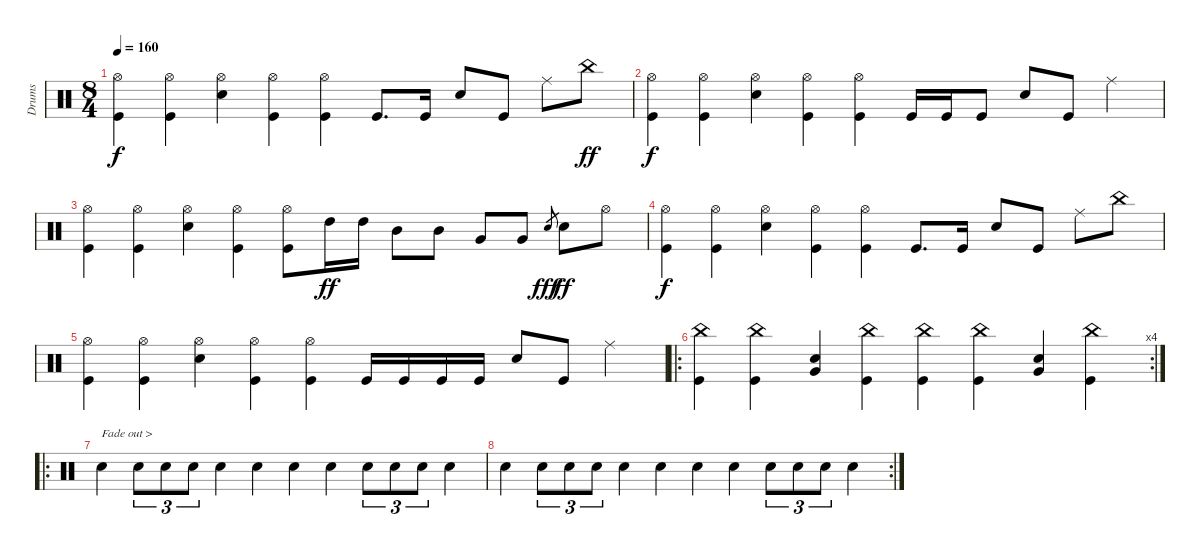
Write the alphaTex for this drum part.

\track ("Drums" "Drums") {instrument percussion}
\staff {score}
\articulation defaults
\ts (8 4)
\tempo 160
\clef neutral
\ks c
("Hi-Hat (open)" "Kick (hit)").4{dy f} ("Hi-Hat (open)" "Kick (hit)").4 ("Hi-Hat (open)" "Snare (hit) 2").4 ("Hi-Hat (open)" "Kick (hit)").4 ("Hi-Hat (open)" "Kick (hit)").4 "Kick (hit)".8{d} "Kick (hit)".16 "Snare (hit) 2".8 "Kick (hit)".8 "Ride (middle)".8 "China (hit)".8{dy ff} |
("Hi-Hat (open)" "Kick (hit)").4{dy f} ("Hi-Hat (open)" "Kick (hit)").4 ("Hi-Hat (open)" "Snare (hit) 2").4 ("Hi-Hat (open)" "Kick (hit)").4 ("Hi-Hat (open)" "Kick (hit)").4 "Kick (hit)".16 "Kick (hit)".16 "Kick (hit)".8 "Snare (hit) 2".8 "Kick (hit)".8 "Ride (middle)".4 |
("Hi-Hat (open)" "Kick (hit)").4 ("Hi-Hat (open)" "Kick (hit)").4 ("Hi-Hat (open)" "Snare (hit) 2").4 ("Hi-Hat (open)" "Kick (hit)").4 ("Hi-Hat (open)" "Kick (hit)").8 "High Tom (hit)".16{dy ff} "High Tom (hit)".16 "Mid Tom (hit)".8 "Mid Tom (hit)".8 "Very Low Tom (hit)".8 "Very Low Tom (hit)".8 "Snare (hit) 2".8{gr dy fff} "Snare (hit) 2".8{dy ff} "Hi-Hat (open)".8 |
("Hi-Hat (open)" "Kick (hit)").4{dy f} ("Hi-Hat (open)" "Kick (hit)").4 ("Hi-Hat (open)" "Snare (hit) 2").4 ("Hi-Hat (open)" "Kick (hit)").4 ("Hi-Hat (open)" "Kick (hit)").4 "Kick (hit)".8{d} "Kick (hit)".16 "Snare (hit) 2".8 "Kick (hit)".8 "Ride (middle)".8 "China (hit)".8 |
("Hi-Hat (open)" "Kick (hit)").4 ("Hi-Hat (open)" "Kick (hit)").4 ("Hi-Hat (open)" "Snare (hit) 2").4 ("Hi-Hat (open)" "Kick (hit)").4 ("Hi-Hat (open)" "Kick (hit)").4 "Kick (hit)".16 "Kick (hit)".16 "Kick (hit)".16 "Kick (hit)".16 "Snare (hit) 2".8 "Kick (hit)".8 "Ride (middle)".4 |
\ro
\rc 4
("China (hit)" "Kick (hit)").4 ("China (hit)" "Kick (hit)").4 ("Snare (hit) 2" "Very Low Tom (hit)").4 ("China (hit)" "Kick (hit)").4 ("China (hit)" "Kick (hit)").4 ("China (hit)" "Kick (hit)").4 ("Snare (hit) 2" "Very Low Tom (hit)").4 ("China (hit)" "Kick (hit)").4 |
\ro "Snare (hit) 2".4{txt "Fade out >"} "Snare (hit) 2".8{tu (3 2)} "Snare (hit) 2".8{tu (3 2)} "Snare (hit) 2".8{tu (3 2)} "Snare (hit) 2".4 "Snare (hit) 2".4 "Snare (hit) 2".4 "Snare (hit) 2".4 "Snare (hit) 2".8{tu (3 2)} "Snare (hit) 2".8{tu (3 2)} "Snare (hit) 2".8{tu (3 2)} "Snare (hit) 2".4
|
\rc 2 "Snare (hit) 2".4 "Snare (hit) 2".8{tu (3 2)} "Snare (hit) 2".8{tu (3 2)} "Snare (hit) 2".8{tu (3 2)} "Snare (hit) 2".4 "Snare (hit) 2".4 "Snare (hit) 2".4 "Snare (hit) 2".4 "Snare (hit) 2".8{tu (3 2)} "Snare (hit) 2".8{tu (3 2)} "Snare (hit) 2".8{tu (3 2)} "Snare (hit) 2".4
